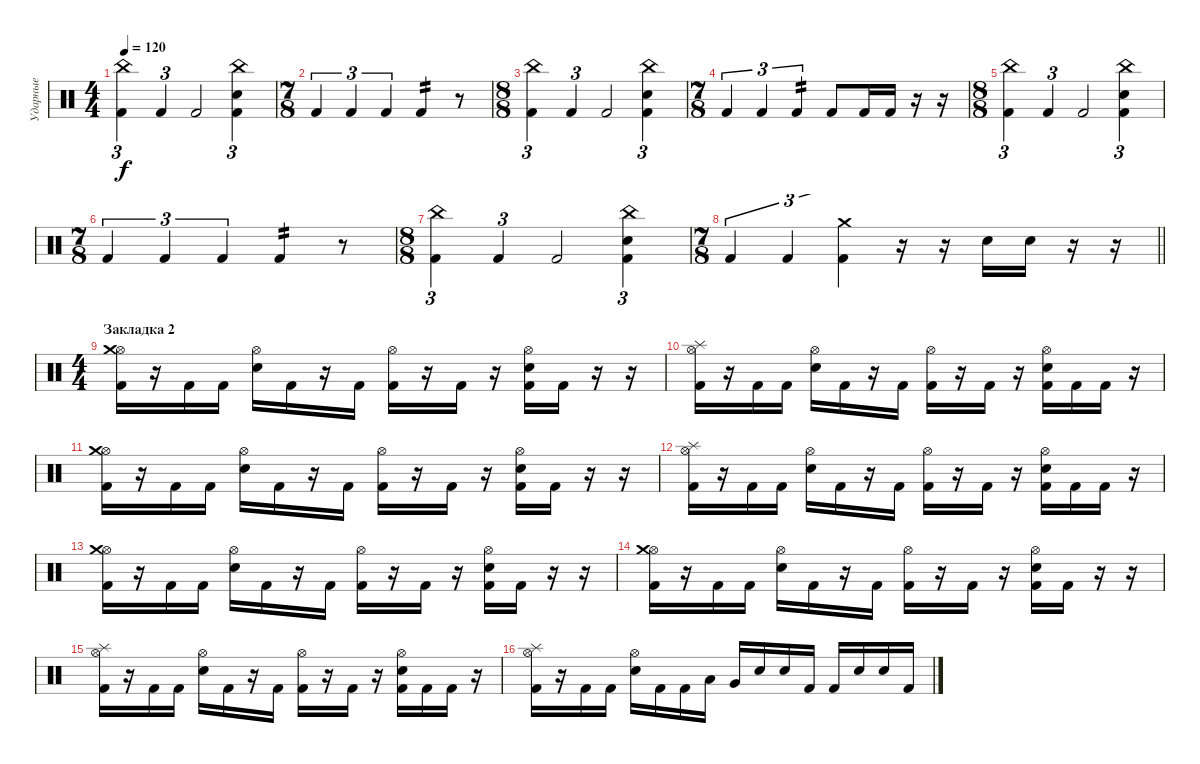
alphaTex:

\track ("Ударные" "Ударные") {instrument percussion}
\staff {score}
\articulation defaults
\ts (4 4)
\tempo 120
\clef neutral
\ks c
("China (hit)" "Kick (hit) 2").4{tu (3 2) dy f} "Kick (hit) 2".4{tu (3 2)} "Kick (hit) 2".2 ("China (hit)" "Electric Snare (hit)" "Kick (hit) 2").4{tu (3 2)} |
\ts (7 8)
"Kick (hit) 2".4{tu (3 2)} "Kick (hit) 2".4{tu (3 2)} "Kick (hit) 2".4{tu (3 2)} "Kick (hit) 2".4{tp 2} r.8 |
\ts (8 8)
("China (hit)" "Kick (hit) 2").4{tu (3 2)} "Kick (hit) 2".4{tu (3 2)} "Kick (hit) 2".2 ("China (hit)" "Electric Snare (hit)" "Kick (hit) 2").4{tu (3 2)} |
\ts (7 8)
"Kick (hit) 2".4{tu (3 2)} "Kick (hit) 2".4{tu (3 2)} "Kick (hit) 2".4{tu (3 2) tp 2} "Kick (hit) 2".8 "Kick (hit) 2".16 "Kick (hit) 2".16 r.16 r.16 |
\ts (8 8)
("China (hit)" "Kick (hit) 2").4{tu (3 2)} "Kick (hit) 2".4{tu (3 2)} "Kick (hit) 2".2 ("China (hit)" "Electric Snare (hit)" "Kick (hit) 2").4{tu (3 2)} |
\ts (7 8)
"Kick (hit) 2".4{tu (3 2)} "Kick (hit) 2".4{tu (3 2)} "Kick (hit) 2".4{tu (3 2)} "Kick (hit) 2".4{tp 2} r.8 |
\ts (8 8)
("China (hit)" "Kick (hit) 2").4{tu (3 2)} "Kick (hit) 2".4{tu (3 2)} "Kick (hit) 2".2 ("China (hit)" "Electric Snare (hit)" "Kick (hit) 2").4{tu (3 2)} |
\ts (7 8)
\barLineRight lightlight "Kick (hit) 2".4{tu (3 2)} "Kick (hit) 2".4{tu (3 2)}
("Crash medium (hit)" "Kick (hit) 2").4{tu (3 2)} r.16 r.16 "Electric Snare (hit)".16 "Electric Snare (hit)".16 r.16 r.16 |
\ts (4 4)
\section ("" "Закладка 2")
("Hi-Hat (open)" "Crash medium (hit)" "Kick (hit) 2").16 r.16 "Kick (hit) 2".16 "Kick (hit) 2".16 ("Hi-Hat (open)" "Electric Snare (hit)").16 "Kick (hit) 2".16 r.16 "Kick (hit) 2".16 ("Hi-Hat (open)" "Kick (hit) 2").16 r.16 "Kick (hit) 2".16 r.16 ("Hi-Hat (open)" "Electric Snare (hit)" "Kick (hit) 2").16 "Kick (hit) 2".16 r.16 r.16 |
("Hi-Hat (open)" "Splash (hit)" "Kick (hit) 2").16 r.16 "Kick (hit) 2".16 "Kick (hit) 2".16 ("Hi-Hat (open)" "Electric Snare (hit)").16 "Kick (hit) 2".16 r.16 "Kick (hit) 2".16 ("Hi-Hat (open)" "Kick (hit) 2").16 r.16 "Kick (hit) 2".16 r.16 ("Hi-Hat (open)" "Electric Snare (hit)" "Kick (hit) 2").16 "Kick (hit) 2".16 "Kick (hit) 2".16 r.16 |
("Hi-Hat (open)" "Crash medium (hit)" "Kick (hit) 2").16 r.16 "Kick (hit) 2".16 "Kick (hit) 2".16 ("Hi-Hat (open)" "Electric Snare (hit)").16 "Kick (hit) 2".16 r.16 "Kick (hit) 2".16 ("Hi-Hat (open)" "Kick (hit) 2").16 r.16 "Kick (hit) 2".16 r.16 ("Hi-Hat (open)" "Electric Snare (hit)" "Kick (hit) 2").16 "Kick (hit) 2".16 r.16 r.16 |
("Hi-Hat (open)" "Splash (hit)" "Kick (hit) 2").16 r.16 "Kick (hit) 2".16 "Kick (hit) 2".16 ("Hi-Hat (open)" "Electric Snare (hit)").16 "Kick (hit) 2".16 r.16 "Kick (hit) 2".16 ("Hi-Hat (open)" "Kick (hit) 2").16 r.16 "Kick (hit) 2".16 r.16 ("Hi-Hat (open)" "Electric Snare (hit)" "Kick (hit) 2").16 "Kick (hit) 2".16 "Kick (hit) 2".16 r.16 |
("Hi-Hat (open)" "Crash medium (hit)" "Kick (hit) 2").16 r.16 "Kick (hit) 2".16 "Kick (hit) 2".16 ("Hi-Hat (open)" "Electric Snare (hit)").16 "Kick (hit) 2".16 r.16 "Kick (hit) 2".16 ("Hi-Hat (open)" "Kick (hit) 2").16 r.16 "Kick (hit) 2".16 r.16 ("Hi-Hat (open)" "Electric Snare (hit)" "Kick (hit) 2").16 "Kick (hit) 2".16 r.16 r.16 |
("Hi-Hat (open)" "Crash medium (hit)" "Kick (hit) 2").16 r.16 "Kick (hit) 2".16 "Kick (hit) 2".16 ("Hi-Hat (open)" "Electric Snare (hit)").16 "Kick (hit) 2".16 r.16 "Kick (hit) 2".16 ("Hi-Hat (open)" "Kick (hit) 2").16 r.16 "Kick (hit) 2".16 r.16 ("Hi-Hat (open)" "Electric Snare (hit)" "Kick (hit) 2").16 "Kick (hit) 2".16 r.16 r.16 |
("Hi-Hat (open)" "Splash (hit)" "Kick (hit) 2").16 r.16 "Kick (hit) 2".16 "Kick (hit) 2".16 ("Hi-Hat (open)" "Electric Snare (hit)").16 "Kick (hit) 2".16 r.16 "Kick (hit) 2".16 ("Hi-Hat (open)" "Kick (hit) 2").16 r.16 "Kick (hit) 2".16 r.16 ("Hi-Hat (open)" "Electric Snare (hit)" "Kick (hit) 2").16 "Kick (hit) 2".16 "Kick (hit) 2".16 r.16 |
("Hi-Hat (open)" "Splash (hit)" "Kick (hit) 2").16 r.16 "Kick (hit) 2".16 "Kick (hit) 2".16 ("Hi-Hat (open)" "Electric Snare (hit)").16 "Kick (hit) 2".16 "Kick (hit) 2".16 "Low Tom (hit)".16 "Very Low Tom (hit)".16 "Electric Snare (hit)".16 "Electric Snare (hit)".16 "Kick (hit) 2".16 "Kick (hit) 2".16 "Electric Snare (hit)".16 "Electric Snare (hit)".16 "Kick (hit) 2".16
